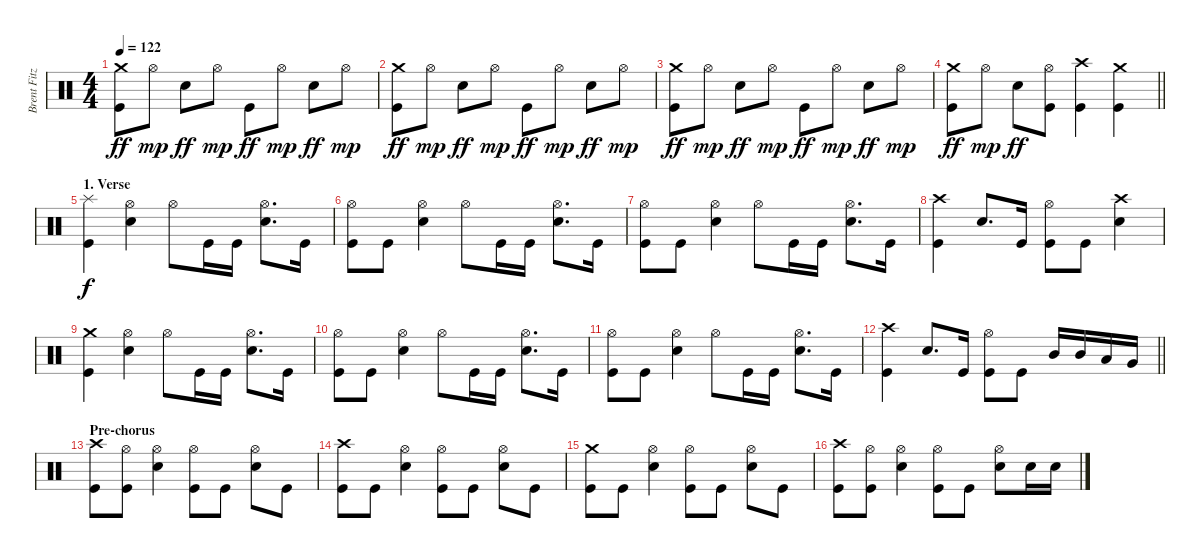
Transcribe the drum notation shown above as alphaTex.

\track ("Brent Fitz" "Brent Fitz") {instrument percussion}
\staff {score}
\articulation defaults
\ts (4 4)
\tempo 122
\clef neutral
\ks c
("Kick (hit)" "Crash medium (hit)").8{dy ff} "Hi-Hat (open)".8{dy mp} "Snare (hit) 2".8{dy ff} "Hi-Hat (open)".8{dy mp} "Kick (hit)".8{dy ff} "Hi-Hat (open)".8{dy mp} "Snare (hit) 2".8{dy ff} "Hi-Hat (open)".8{dy mp} |
("Kick (hit)" "Crash medium (hit)").8{dy ff} "Hi-Hat (open)".8{dy mp} "Snare (hit) 2".8{dy ff} "Hi-Hat (open)".8{dy mp} "Kick (hit)".8{dy ff} "Hi-Hat (open)".8{dy mp} "Snare (hit) 2".8{dy ff} "Hi-Hat (open)".8{dy mp} |
("Kick (hit)" "Crash medium (hit)").8{dy ff} "Hi-Hat (open)".8{dy mp} "Snare (hit) 2".8{dy ff} "Hi-Hat (open)".8{dy mp} "Kick (hit)".8{dy ff} "Hi-Hat (open)".8{dy mp} "Snare (hit) 2".8{dy ff} "Hi-Hat (open)".8{dy mp} |
\barLineRight lightlight
("Kick (hit)" "Crash medium (hit)").8{dy ff} "Hi-Hat (open)".8{dy mp} "Snare (hit) 2".8{dy ff} ("Hi-Hat (open)" "Kick (hit)").8 ("Kick (hit)" "Crash high (hit)").4 ("Kick (hit)" "Crash medium (hit)").4 |
\section ("" "1. Verse")
("Kick (hit)" "Splash (hit)").4{dy f} ("Snare (hit) 2" "Hi-Hat (open)").4 "Hi-Hat (open)".8 "Kick (hit)".16 "Kick (hit)".16 ("Snare (hit) 2" "Hi-Hat (open)").8{d} "Kick (hit)".16 |
("Kick (hit)" "Hi-Hat (open)").8 "Kick (hit)".8 ("Snare (hit) 2" "Hi-Hat (open)").4 "Hi-Hat (open)".8 "Kick (hit)".16 "Kick (hit)".16 ("Snare (hit) 2" "Hi-Hat (open)").8{d} "Kick (hit)".16 |
("Kick (hit)" "Hi-Hat (open)").8 "Kick (hit)".8 ("Snare (hit) 2" "Hi-Hat (open)").4 "Hi-Hat (open)".8 "Kick (hit)".16 "Kick (hit)".16 ("Snare (hit) 2" "Hi-Hat (open)").8{d} "Kick (hit)".16 |
("Kick (hit)" "Crash high (hit)").4 "Snare (hit) 2".8{d} "Kick (hit)".16 ("Kick (hit)" "Hi-Hat (open)").8 "Kick (hit)".8 ("Snare (hit) 2" "Crash high (hit)").4 |
("Kick (hit)" "Crash medium (hit)").4 ("Snare (hit) 2" "Hi-Hat (open)").4 "Hi-Hat (open)".8 "Kick (hit)".16 "Kick (hit)".16 ("Snare (hit) 2" "Hi-Hat (open)").8{d} "Kick (hit)".16 |
("Kick (hit)" "Hi-Hat (open)").8 "Kick (hit)".8 ("Snare (hit) 2" "Hi-Hat (open)").4 "Hi-Hat (open)".8 "Kick (hit)".16 "Kick (hit)".16 ("Snare (hit) 2" "Hi-Hat (open)").8{d} "Kick (hit)".16 |
("Kick (hit)" "Hi-Hat (open)").8 "Kick (hit)".8 ("Snare (hit) 2" "Hi-Hat (open)").4 "Hi-Hat (open)".8 "Kick (hit)".16 "Kick (hit)".16 ("Snare (hit) 2" "Hi-Hat (open)").8{d} "Kick (hit)".16 |
\barLineRight lightlight
("Kick (hit)" "Crash high (hit)").4 "Snare (hit) 2".8{d} "Kick (hit)".16 ("Kick (hit)" "Hi-Hat (open)").8 "Kick (hit)".8 "Mid Tom (hit)".16 "Mid Tom (hit)".16 "Low Tom (hit)".16 "Very Low Tom (hit)".16 |
\section ("" "Pre-chorus")
("Kick (hit)" "Crash high (hit)").8 ("Kick (hit)" "Hi-Hat (open)").8 ("Snare (hit) 2" "Hi-Hat (open)").4 ("Kick (hit)" "Hi-Hat (open)").8 "Kick (hit)".8 ("Snare (hit) 2" "Hi-Hat (open)").8 "Kick (hit)".8 |
("Kick (hit)" "Crash high (hit)").8 "Kick (hit)".8 ("Snare (hit) 2" "Hi-Hat (open)").4 ("Kick (hit)" "Hi-Hat (open)").8 "Kick (hit)".8 ("Snare (hit) 2" "Hi-Hat (open)").8 "Kick (hit)".8 |
("Kick (hit)" "Crash medium (hit)").8 "Kick (hit)".8 ("Snare (hit) 2" "Hi-Hat (open)").4 ("Kick (hit)" "Hi-Hat (open)").8 "Kick (hit)".8 ("Snare (hit) 2" "Hi-Hat (open)").8 "Kick (hit)".8 |
("Kick (hit)" "Crash high (hit)").8 ("Kick (hit)" "Hi-Hat (open)").8 ("Snare (hit) 2" "Hi-Hat (open)").4 ("Kick (hit)" "Hi-Hat (open)").8 "Kick (hit)".8 ("Snare (hit) 2" "Hi-Hat (open)").8 "Snare (hit) 2".16 "Snare (hit) 2".16
